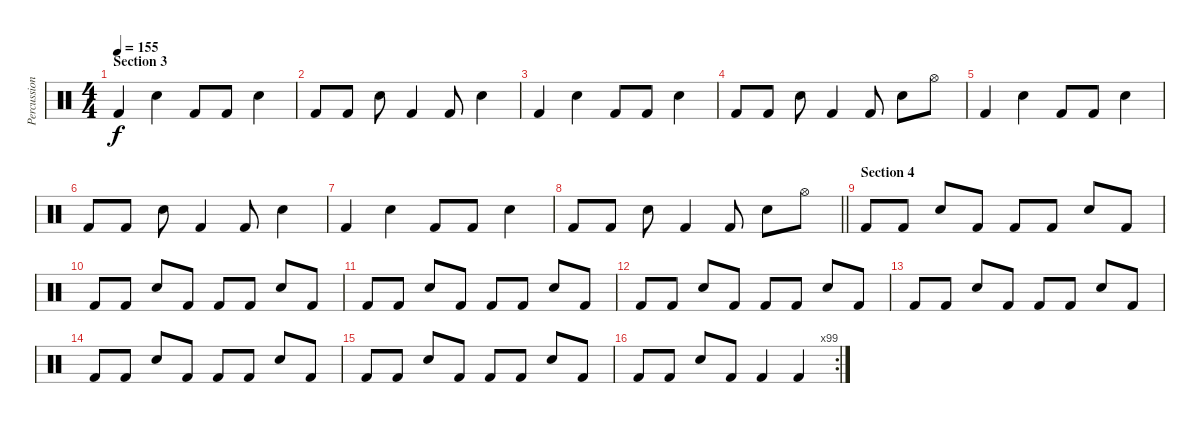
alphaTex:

\track ("Percussion" "Percussion") {instrument percussion}
\staff {score}
\articulation defaults
\ts (4 4)
\section ("" "Section 3")
\tempo 155
\clef neutral
\ks c "Kick (hit) 2".4{dy f} "Snare (hit) 2".4 "Kick (hit) 2".8 "Kick (hit) 2".8 "Snare (hit) 2".4
|
"Kick (hit) 2".8 "Kick (hit) 2".8 "Snare (hit) 2".8 "Kick (hit) 2".4 "Kick (hit) 2".8 "Snare (hit) 2".4 |
"Kick (hit) 2".4 "Snare (hit) 2".4 "Kick (hit) 2".8 "Kick (hit) 2".8 "Snare (hit) 2".4 |
"Kick (hit) 2".8 "Kick (hit) 2".8 "Snare (hit) 2".8 "Kick (hit) 2".4 "Kick (hit) 2".8 "Snare (hit) 2".8 "Hi-Hat (open)".8 |
"Kick (hit) 2".4 "Snare (hit) 2".4 "Kick (hit) 2".8 "Kick (hit) 2".8 "Snare (hit) 2".4 |
"Kick (hit) 2".8 "Kick (hit) 2".8 "Snare (hit) 2".8 "Kick (hit) 2".4 "Kick (hit) 2".8 "Snare (hit) 2".4 |
"Kick (hit) 2".4 "Snare (hit) 2".4 "Kick (hit) 2".8 "Kick (hit) 2".8 "Snare (hit) 2".4 |
\barLineRight lightlight "Kick (hit) 2".8 "Kick (hit) 2".8 "Snare (hit) 2".8 "Kick (hit) 2".4 "Kick (hit) 2".8 "Snare (hit) 2".8 "Hi-Hat (open)".8
|
\section ("" "Section 4")
"Kick (hit) 2".8 "Kick (hit) 2".8 "Snare (hit) 2".8 "Kick (hit) 2".8 "Kick (hit) 2".8 "Kick (hit) 2".8 "Snare (hit) 2".8 "Kick (hit) 2".8 |
"Kick (hit) 2".8 "Kick (hit) 2".8 "Snare (hit) 2".8 "Kick (hit) 2".8 "Kick (hit) 2".8 "Kick (hit) 2".8 "Snare (hit) 2".8 "Kick (hit) 2".8 |
"Kick (hit) 2".8 "Kick (hit) 2".8 "Snare (hit) 2".8 "Kick (hit) 2".8 "Kick (hit) 2".8 "Kick (hit) 2".8 "Snare (hit) 2".8 "Kick (hit) 2".8 |
"Kick (hit) 2".8 "Kick (hit) 2".8 "Snare (hit) 2".8 "Kick (hit) 2".8 "Kick (hit) 2".8 "Kick (hit) 2".8 "Snare (hit) 2".8 "Kick (hit) 2".8 |
"Kick (hit) 2".8 "Kick (hit) 2".8 "Snare (hit) 2".8 "Kick (hit) 2".8 "Kick (hit) 2".8 "Kick (hit) 2".8 "Snare (hit) 2".8 "Kick (hit) 2".8 |
"Kick (hit) 2".8 "Kick (hit) 2".8 "Snare (hit) 2".8 "Kick (hit) 2".8 "Kick (hit) 2".8 "Kick (hit) 2".8 "Snare (hit) 2".8 "Kick (hit) 2".8 |
"Kick (hit) 2".8 "Kick (hit) 2".8 "Snare (hit) 2".8 "Kick (hit) 2".8 "Kick (hit) 2".8 "Kick (hit) 2".8 "Snare (hit) 2".8 "Kick (hit) 2".8 |
\rc 99 "Kick (hit) 2".8 "Kick (hit) 2".8 "Snare (hit) 2".8 "Kick (hit) 2".8 "Kick (hit) 2".4 "Kick (hit) 2".4
